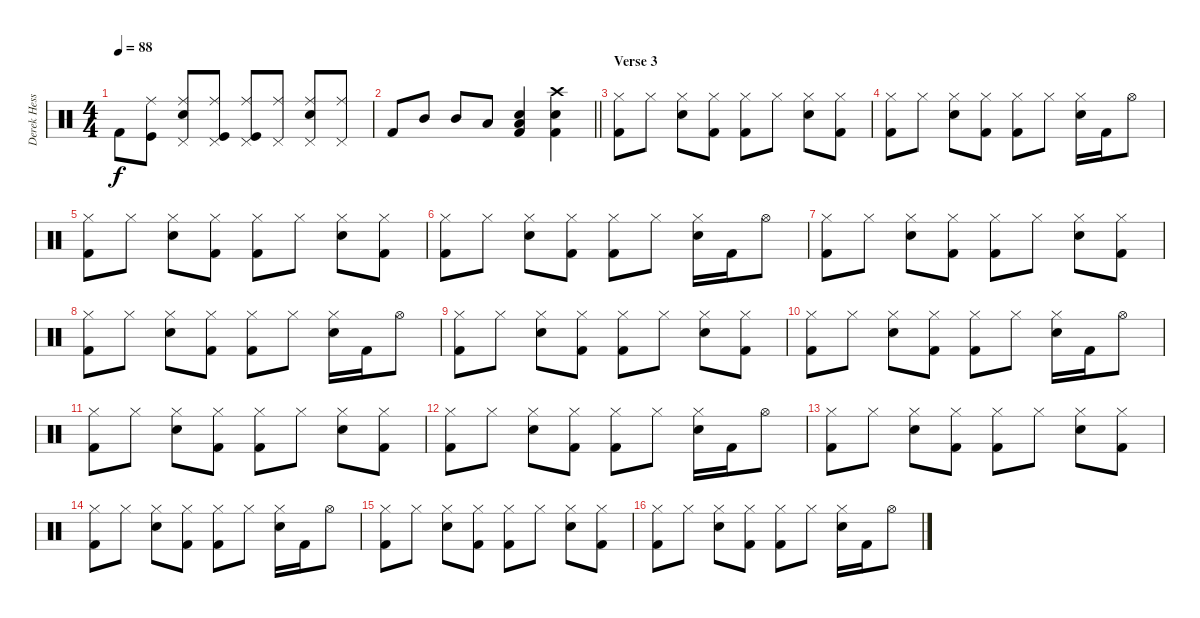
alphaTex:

\track ("Derek Hess" "Derek Hess") {instrument percussion}
\staff {score}
\articulation defaults
\ts (4 4)
\tempo 88
\clef neutral
\ks c "Kick (hit) 2".8{dy f}
("Ride (middle)" "Kick (hit)").8 ("Ride (middle)" "Pedal Hi-Hat (hit)" "Electric Snare (hit)").8 ("Ride (middle)" "Pedal Hi-Hat (hit)" "Kick (hit)").8 ("Ride (middle)" "Pedal Hi-Hat (hit)" "Kick (hit)").8 ("Ride (middle)" "Pedal Hi-Hat (hit)").8 ("Ride (middle)" "Pedal Hi-Hat (hit)" "Electric Snare (hit)").8 ("Ride (middle)" "Pedal Hi-Hat (hit)").8 |
\barLineRight lightlight "Kick (hit) 2".8 "Mid Tom (hit)".8 "Mid Tom (hit)".8 "Low Tom (hit)".8
("Electric Snare (hit)" "Low Tom (hit)" "Kick (hit) 2").4 ("Electric Snare (hit)" "Crash high (hit)" "Kick (hit) 2").4 |
\section ("" "Verse 3")
("Hi-Hat (closed)" "Kick (hit) 2").8 "Hi-Hat (closed)".8 ("Electric Snare (hit)" "Hi-Hat (closed)").8 ("Hi-Hat (closed)" "Kick (hit) 2").8 ("Hi-Hat (closed)" "Kick (hit) 2").8 "Hi-Hat (closed)".8 ("Electric Snare (hit)" "Hi-Hat (closed)").8 ("Hi-Hat (closed)" "Kick (hit) 2").8 |
("Hi-Hat (closed)" "Kick (hit) 2").8 "Hi-Hat (closed)".8 ("Electric Snare (hit)" "Hi-Hat (closed)").8 ("Hi-Hat (closed)" "Kick (hit) 2").8 ("Hi-Hat (closed)" "Kick (hit) 2").8 "Hi-Hat (closed)".8 ("Electric Snare (hit)" "Hi-Hat (closed)").16 "Kick (hit) 2".16 "Hi-Hat (open)".8 |
("Hi-Hat (closed)" "Kick (hit) 2").8 "Hi-Hat (closed)".8 ("Electric Snare (hit)" "Hi-Hat (closed)").8 ("Hi-Hat (closed)" "Kick (hit) 2").8 ("Hi-Hat (closed)" "Kick (hit) 2").8 "Hi-Hat (closed)".8 ("Electric Snare (hit)" "Hi-Hat (closed)").8 ("Hi-Hat (closed)" "Kick (hit) 2").8 |
("Hi-Hat (closed)" "Kick (hit) 2").8 "Hi-Hat (closed)".8 ("Electric Snare (hit)" "Hi-Hat (closed)").8 ("Hi-Hat (closed)" "Kick (hit) 2").8 ("Hi-Hat (closed)" "Kick (hit) 2").8 "Hi-Hat (closed)".8 ("Electric Snare (hit)" "Hi-Hat (closed)").16 "Kick (hit) 2".16 "Hi-Hat (open)".8 |
("Hi-Hat (closed)" "Kick (hit) 2").8 "Hi-Hat (closed)".8 ("Electric Snare (hit)" "Hi-Hat (closed)").8 ("Hi-Hat (closed)" "Kick (hit) 2").8 ("Hi-Hat (closed)" "Kick (hit) 2").8 "Hi-Hat (closed)".8 ("Electric Snare (hit)" "Hi-Hat (closed)").8 ("Hi-Hat (closed)" "Kick (hit) 2").8 |
("Hi-Hat (closed)" "Kick (hit) 2").8 "Hi-Hat (closed)".8 ("Electric Snare (hit)" "Hi-Hat (closed)").8 ("Hi-Hat (closed)" "Kick (hit) 2").8 ("Hi-Hat (closed)" "Kick (hit) 2").8 "Hi-Hat (closed)".8 ("Electric Snare (hit)" "Hi-Hat (closed)").16 "Kick (hit) 2".16 "Hi-Hat (open)".8 |
("Hi-Hat (closed)" "Kick (hit) 2").8 "Hi-Hat (closed)".8 ("Electric Snare (hit)" "Hi-Hat (closed)").8 ("Hi-Hat (closed)" "Kick (hit) 2").8 ("Hi-Hat (closed)" "Kick (hit) 2").8 "Hi-Hat (closed)".8 ("Electric Snare (hit)" "Hi-Hat (closed)").8 ("Hi-Hat (closed)" "Kick (hit) 2").8 |
("Hi-Hat (closed)" "Kick (hit) 2").8 "Hi-Hat (closed)".8 ("Electric Snare (hit)" "Hi-Hat (closed)").8 ("Hi-Hat (closed)" "Kick (hit) 2").8 ("Hi-Hat (closed)" "Kick (hit) 2").8 "Hi-Hat (closed)".8 ("Electric Snare (hit)" "Hi-Hat (closed)").16 "Kick (hit) 2".16 "Hi-Hat (open)".8 |
("Hi-Hat (closed)" "Kick (hit) 2").8 "Hi-Hat (closed)".8 ("Electric Snare (hit)" "Hi-Hat (closed)").8 ("Hi-Hat (closed)" "Kick (hit) 2").8 ("Hi-Hat (closed)" "Kick (hit) 2").8 "Hi-Hat (closed)".8 ("Electric Snare (hit)" "Hi-Hat (closed)").8 ("Hi-Hat (closed)" "Kick (hit) 2").8 |
("Hi-Hat (closed)" "Kick (hit) 2").8 "Hi-Hat (closed)".8 ("Electric Snare (hit)" "Hi-Hat (closed)").8 ("Hi-Hat (closed)" "Kick (hit) 2").8 ("Hi-Hat (closed)" "Kick (hit) 2").8 "Hi-Hat (closed)".8 ("Electric Snare (hit)" "Hi-Hat (closed)").16 "Kick (hit) 2".16 "Hi-Hat (open)".8 |
("Hi-Hat (closed)" "Kick (hit) 2").8 "Hi-Hat (closed)".8 ("Electric Snare (hit)" "Hi-Hat (closed)").8 ("Hi-Hat (closed)" "Kick (hit) 2").8 ("Hi-Hat (closed)" "Kick (hit) 2").8 "Hi-Hat (closed)".8 ("Electric Snare (hit)" "Hi-Hat (closed)").8 ("Hi-Hat (closed)" "Kick (hit) 2").8 |
("Hi-Hat (closed)" "Kick (hit) 2").8 "Hi-Hat (closed)".8 ("Electric Snare (hit)" "Hi-Hat (closed)").8 ("Hi-Hat (closed)" "Kick (hit) 2").8 ("Hi-Hat (closed)" "Kick (hit) 2").8 "Hi-Hat (closed)".8 ("Electric Snare (hit)" "Hi-Hat (closed)").16 "Kick (hit) 2".16 "Hi-Hat (open)".8 |
("Hi-Hat (closed)" "Kick (hit) 2").8 "Hi-Hat (closed)".8 ("Electric Snare (hit)" "Hi-Hat (closed)").8 ("Hi-Hat (closed)" "Kick (hit) 2").8 ("Hi-Hat (closed)" "Kick (hit) 2").8 "Hi-Hat (closed)".8 ("Electric Snare (hit)" "Hi-Hat (closed)").8 ("Hi-Hat (closed)" "Kick (hit) 2").8 |
("Hi-Hat (closed)" "Kick (hit) 2").8 "Hi-Hat (closed)".8 ("Electric Snare (hit)" "Hi-Hat (closed)").8 ("Hi-Hat (closed)" "Kick (hit) 2").8 ("Hi-Hat (closed)" "Kick (hit) 2").8 "Hi-Hat (closed)".8 ("Electric Snare (hit)" "Hi-Hat (closed)").16 "Kick (hit) 2".16 "Hi-Hat (open)".8
